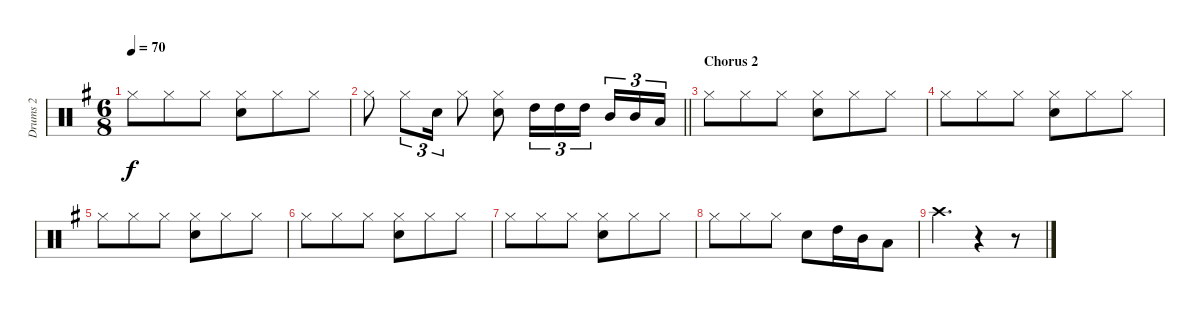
\track ("Drums 2" "Drums 2") {instrument percussion}
\staff {score}
\articulation defaults
\ts (6 8)
\tempo 70
\clef neutral
\ks g "Hi-Hat (closed)".8{dy f} "Hi-Hat (closed)".8 "Hi-Hat (closed)".8
("Snare (hit) 2" "Hi-Hat (closed)").8 "Hi-Hat (closed)".8 "Hi-Hat (closed)".8 |
\barLineRight lightlight "Hi-Hat (closed)".8 "Hi-Hat (closed)".8{tu (3 2)} "Snare (hit) 2".16{tu (3 2)} "Hi-Hat (closed)".8
("Hi-Hat (closed)" "Snare (hit) 2").8 "High Tom (hit)".16{tu (3 2)} "High Tom (hit)".16{tu (3 2)} "High Tom (hit)".16{tu (3 2) beam splitsecondary} "Mid Tom (hit)".16{tu (3 2)} "Mid Tom (hit)".16{tu (3 2)} "Low Tom (hit)".16{tu (3 2)} |
\section ("" "Chorus 2")
"Hi-Hat (closed)".8 "Hi-Hat (closed)".8 "Hi-Hat (closed)".8 ("Snare (hit) 2" "Hi-Hat (closed)").8 "Hi-Hat (closed)".8 "Hi-Hat (closed)".8 |
"Hi-Hat (closed)".8 "Hi-Hat (closed)".8 "Hi-Hat (closed)".8 ("Snare (hit) 2" "Hi-Hat (closed)").8 "Hi-Hat (closed)".8 "Hi-Hat (closed)".8 |
"Hi-Hat (closed)".8 "Hi-Hat (closed)".8 "Hi-Hat (closed)".8 ("Snare (hit) 2" "Hi-Hat (closed)").8 "Hi-Hat (closed)".8 "Hi-Hat (closed)".8 |
"Hi-Hat (closed)".8 "Hi-Hat (closed)".8 "Hi-Hat (closed)".8 ("Snare (hit) 2" "Hi-Hat (closed)").8 "Hi-Hat (closed)".8 "Hi-Hat (closed)".8 |
"Hi-Hat (closed)".8 "Hi-Hat (closed)".8 "Hi-Hat (closed)".8 ("Snare (hit) 2" "Hi-Hat (closed)").8 "Hi-Hat (closed)".8 "Hi-Hat (closed)".8 |
"Hi-Hat (closed)".8 "Hi-Hat (closed)".8 "Hi-Hat (closed)".8 "Snare (hit) 2".8 "High Tom (hit)".16 "Mid Tom (hit)".16 "Low Tom (hit)".8 |
"Crash high (hit)".4{d} r.4 r.8
